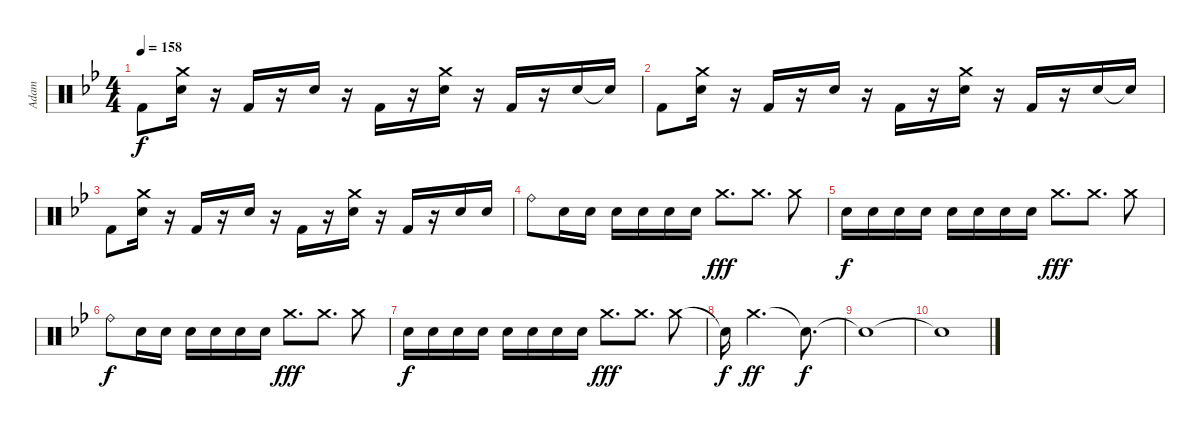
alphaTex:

\track ("Adam" "Adam") {instrument percussion}
\staff
\articulation defaults
\ts (4 4)
\tempo 158
\clef neutral
\ks gminor "Kick (hit) 2".8{dy f}
("Crash medium (hit)" "Snare (hit) 2").16 r.16 "Kick (hit) 2".16 r.16 "Snare (hit) 2".16 r.16 "Kick (hit) 2".16 r.16 ("Crash medium (hit)" "Snare (hit) 2").16 r.16 "Kick (hit) 2".16 r.16 "Snare (hit) 2".16 "Snare (hit)"{t}.16 |
"Kick (hit) 2".8 ("Crash medium (hit)" "Snare (hit) 2").16 r.16 "Kick (hit) 2".16 r.16 "Snare (hit) 2".16 r.16 "Kick (hit) 2".16 r.16 ("Crash medium (hit)" "Snare (hit) 2").16 r.16 "Kick (hit) 2".16 r.16 "Snare (hit) 2".16 "Snare (hit)"{t}.16 |
"Kick (hit) 2".8 ("Crash medium (hit)" "Snare (hit) 2").16 r.16 "Kick (hit) 2".16 r.16 "Snare (hit) 2".16 r.16 "Kick (hit) 2".16 r.16 ("Crash medium (hit)" "Snare (hit) 2").16 r.16 "Kick (hit) 2".16 r.16 "Snare (hit) 2".16 "Snare (hit) 2".16 |
"Ride (bell)".8 "Snare (hit) 2".16 "Snare (hit) 2".16 "Snare (hit) 2".16 "Snare (hit) 2".16 "Snare (hit) 2".16 "Snare (hit) 2".16 "Crash medium (hit)".8{d dy fff} "Crash medium (hit)".8{d} "Crash medium (hit)".8 |
"Snare (hit) 2".16{dy f} "Snare (hit) 2".16 "Snare (hit) 2".16 "Snare (hit) 2".16 "Snare (hit) 2".16 "Snare (hit) 2".16 "Snare (hit) 2".16 "Snare (hit) 2".16 "Crash medium (hit)".8{d dy fff} "Crash medium (hit)".8{d} "Crash medium (hit)".8 |
"Ride (bell)".8{dy f} "Snare (hit) 2".16 "Snare (hit) 2".16 "Snare (hit) 2".16 "Snare (hit) 2".16 "Snare (hit) 2".16 "Snare (hit) 2".16 "Crash medium (hit)".8{d dy fff} "Crash medium (hit)".8{d} "Crash medium (hit)".8 |
"Snare (hit) 2".16{dy f} "Snare (hit) 2".16 "Snare (hit) 2".16 "Snare (hit) 2".16 "Snare (hit) 2".16 "Snare (hit) 2".16 "Snare (hit) 2".16 "Snare (hit) 2".16 "Crash medium (hit)".8{d dy fff} "Crash medium (hit)".8{d} "Crash medium (hit)".8 |
"Snare (hit)"{t}.16{dy f} "Crash medium (hit)".2{d dy ff} "Snare (hit)"{t}.8{d dy f} |
"Snare (hit)"{t}.1{volume 0} |
"Snare (hit)"{t}.1
